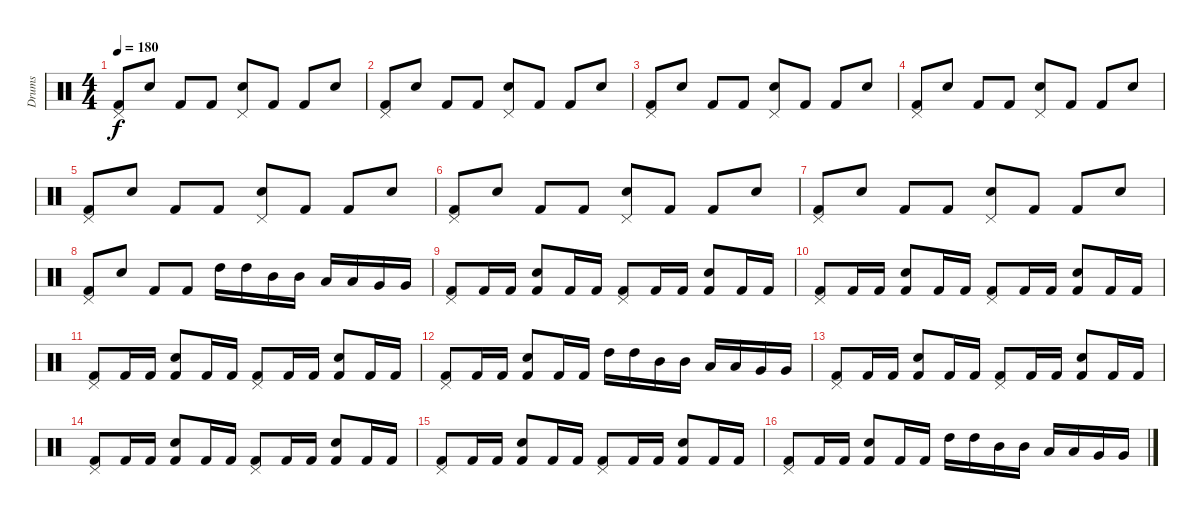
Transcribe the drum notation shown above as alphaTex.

\track ("Drums" "Drums") {instrument percussion}
\staff {score}
\articulation defaults
\ts (4 4)
\tempo 180
\clef neutral
\ks c
("Pedal Hi-Hat (hit)" "Kick (hit) 2").8{dy f} "Electric Snare (hit)".8 "Kick (hit) 2".8 "Kick (hit) 2".8 ("Electric Snare (hit)" "Pedal Hi-Hat (hit)").8 "Kick (hit) 2".8 "Kick (hit) 2".8 "Electric Snare (hit)".8 |
("Pedal Hi-Hat (hit)" "Kick (hit) 2").8 "Electric Snare (hit)".8 "Kick (hit) 2".8 "Kick (hit) 2".8 ("Electric Snare (hit)" "Pedal Hi-Hat (hit)").8 "Kick (hit) 2".8 "Kick (hit) 2".8 "Electric Snare (hit)".8 |
("Pedal Hi-Hat (hit)" "Kick (hit) 2").8 "Electric Snare (hit)".8 "Kick (hit) 2".8 "Kick (hit) 2".8 ("Electric Snare (hit)" "Pedal Hi-Hat (hit)").8 "Kick (hit) 2".8 "Kick (hit) 2".8 "Electric Snare (hit)".8 |
("Pedal Hi-Hat (hit)" "Kick (hit) 2").8 "Electric Snare (hit)".8 "Kick (hit) 2".8 "Kick (hit) 2".8 ("Electric Snare (hit)" "Pedal Hi-Hat (hit)").8 "Kick (hit) 2".8 "Kick (hit) 2".8 "Electric Snare (hit)".8 |
("Pedal Hi-Hat (hit)" "Kick (hit) 2").8 "Electric Snare (hit)".8 "Kick (hit) 2".8 "Kick (hit) 2".8 ("Electric Snare (hit)" "Pedal Hi-Hat (hit)").8 "Kick (hit) 2".8 "Kick (hit) 2".8 "Electric Snare (hit)".8 |
("Pedal Hi-Hat (hit)" "Kick (hit) 2").8 "Electric Snare (hit)".8 "Kick (hit) 2".8 "Kick (hit) 2".8 ("Electric Snare (hit)" "Pedal Hi-Hat (hit)").8 "Kick (hit) 2".8 "Kick (hit) 2".8 "Electric Snare (hit)".8 |
("Pedal Hi-Hat (hit)" "Kick (hit) 2").8 "Electric Snare (hit)".8 "Kick (hit) 2".8 "Kick (hit) 2".8 ("Electric Snare (hit)" "Pedal Hi-Hat (hit)").8 "Kick (hit) 2".8 "Kick (hit) 2".8 "Electric Snare (hit)".8 |
("Pedal Hi-Hat (hit)" "Kick (hit) 2").8 "Electric Snare (hit)".8 "Kick (hit) 2".8 "Kick (hit) 2".8 "High Tom (hit)".16 "High Tom (hit)".16 "Mid Tom (hit)".16 "Mid Tom (hit)".16 "Low Tom (hit)".16 "Low Tom (hit)".16 "Very Low Tom (hit)".16 "Very Low Tom (hit)".16 |
("Pedal Hi-Hat (hit)" "Kick (hit) 2").8 "Kick (hit) 2".16 "Kick (hit) 2".16 ("Electric Snare (hit)" "Kick (hit) 2").8 "Kick (hit) 2".16 "Kick (hit) 2".16 ("Pedal Hi-Hat (hit)" "Kick (hit) 2").8 "Kick (hit) 2".16 "Kick (hit) 2".16 ("Electric Snare (hit)" "Kick (hit) 2").8 "Kick (hit) 2".16 "Kick (hit) 2".16 |
("Pedal Hi-Hat (hit)" "Kick (hit) 2").8 "Kick (hit) 2".16 "Kick (hit) 2".16 ("Electric Snare (hit)" "Kick (hit) 2").8 "Kick (hit) 2".16 "Kick (hit) 2".16 ("Pedal Hi-Hat (hit)" "Kick (hit) 2").8 "Kick (hit) 2".16 "Kick (hit) 2".16 ("Electric Snare (hit)" "Kick (hit) 2").8 "Kick (hit) 2".16 "Kick (hit) 2".16 |
("Pedal Hi-Hat (hit)" "Kick (hit) 2").8 "Kick (hit) 2".16 "Kick (hit) 2".16 ("Electric Snare (hit)" "Kick (hit) 2").8 "Kick (hit) 2".16 "Kick (hit) 2".16 ("Pedal Hi-Hat (hit)" "Kick (hit) 2").8 "Kick (hit) 2".16 "Kick (hit) 2".16 ("Electric Snare (hit)" "Kick (hit) 2").8 "Kick (hit) 2".16 "Kick (hit) 2".16 |
("Pedal Hi-Hat (hit)" "Kick (hit) 2").8 "Kick (hit) 2".16 "Kick (hit) 2".16 ("Electric Snare (hit)" "Kick (hit) 2").8 "Kick (hit) 2".16 "Kick (hit) 2".16 "High Tom (hit)".16 "High Tom (hit)".16 "Mid Tom (hit)".16 "Mid Tom (hit)".16 "Low Tom (hit)".16 "Low Tom (hit)".16 "Very Low Tom (hit)".16 "Very Low Tom (hit)".16 |
("Pedal Hi-Hat (hit)" "Kick (hit) 2").8 "Kick (hit) 2".16 "Kick (hit) 2".16 ("Electric Snare (hit)" "Kick (hit) 2").8 "Kick (hit) 2".16 "Kick (hit) 2".16 ("Pedal Hi-Hat (hit)" "Kick (hit) 2").8 "Kick (hit) 2".16 "Kick (hit) 2".16 ("Electric Snare (hit)" "Kick (hit) 2").8 "Kick (hit) 2".16 "Kick (hit) 2".16 |
("Pedal Hi-Hat (hit)" "Kick (hit) 2").8 "Kick (hit) 2".16 "Kick (hit) 2".16 ("Electric Snare (hit)" "Kick (hit) 2").8 "Kick (hit) 2".16 "Kick (hit) 2".16 ("Pedal Hi-Hat (hit)" "Kick (hit) 2").8 "Kick (hit) 2".16 "Kick (hit) 2".16 ("Electric Snare (hit)" "Kick (hit) 2").8 "Kick (hit) 2".16 "Kick (hit) 2".16 |
("Pedal Hi-Hat (hit)" "Kick (hit) 2").8 "Kick (hit) 2".16 "Kick (hit) 2".16 ("Electric Snare (hit)" "Kick (hit) 2").8 "Kick (hit) 2".16 "Kick (hit) 2".16 ("Pedal Hi-Hat (hit)" "Kick (hit) 2").8 "Kick (hit) 2".16 "Kick (hit) 2".16 ("Electric Snare (hit)" "Kick (hit) 2").8 "Kick (hit) 2".16 "Kick (hit) 2".16 |
("Pedal Hi-Hat (hit)" "Kick (hit) 2").8 "Kick (hit) 2".16 "Kick (hit) 2".16 ("Electric Snare (hit)" "Kick (hit) 2").8 "Kick (hit) 2".16 "Kick (hit) 2".16 "High Tom (hit)".16 "High Tom (hit)".16 "Mid Tom (hit)".16 "Mid Tom (hit)".16 "Low Tom (hit)".16 "Low Tom (hit)".16 "Very Low Tom (hit)".16 "Very Low Tom (hit)".16
